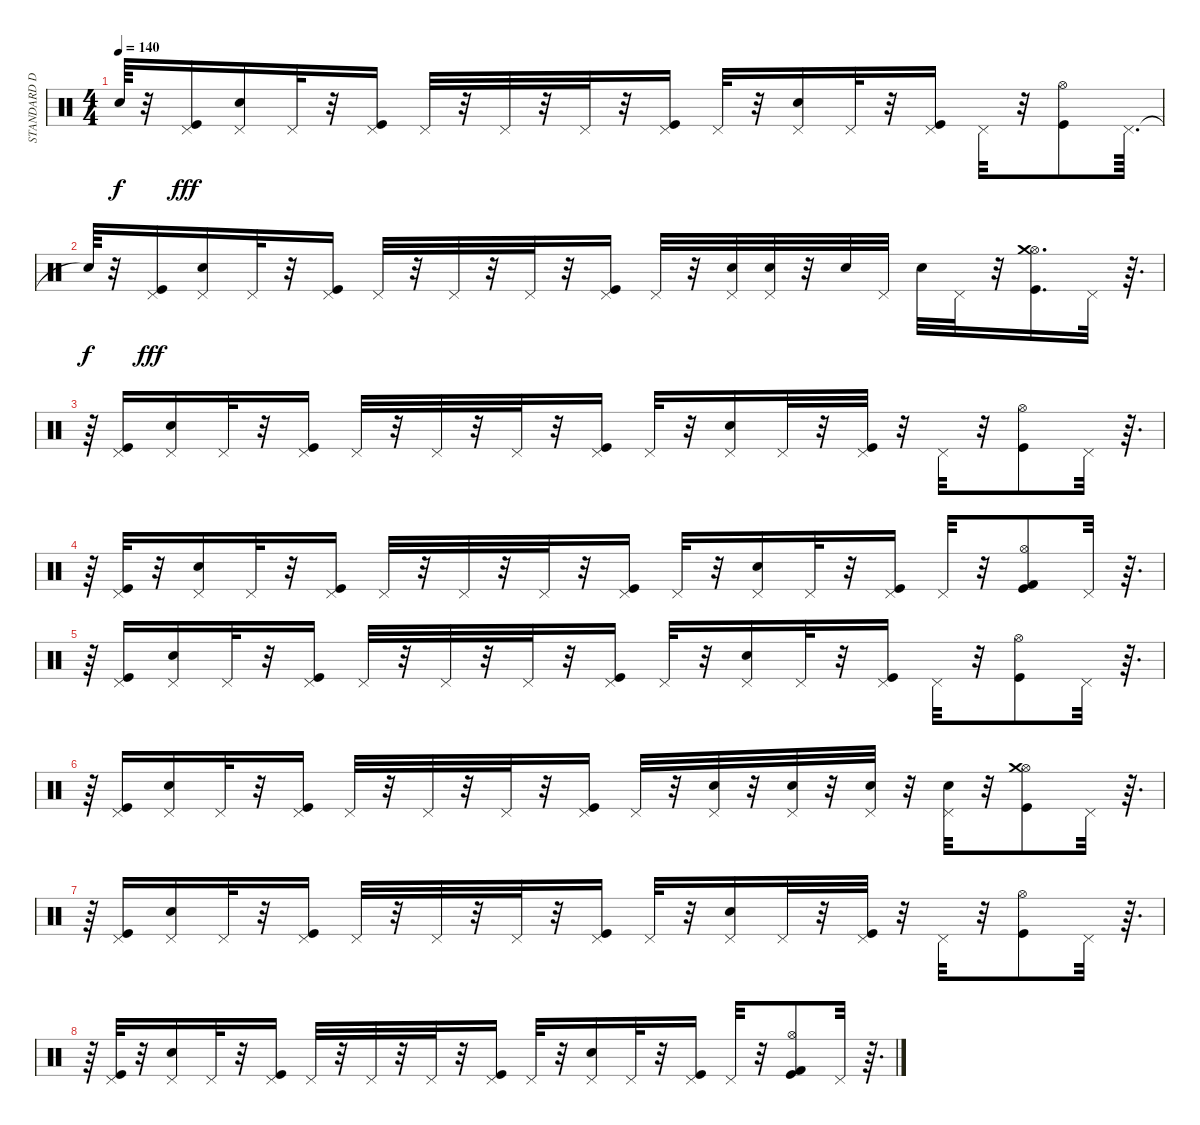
\track ("STANDARD DRUMS" "STANDARD D") {instrument percussion}
\staff {score}
\articulation defaults
\ts (4 4)
\tempo 140
\clef neutral
\ks c "Snare (hit)"{t}.64{dy f}
r.32 ("Kick (hit)" "Pedal Hi-Hat (hit)").16{dy fff} ("Snare (hit) 2" "Pedal Hi-Hat (hit)").16 "Pedal Hi-Hat (hit)".32 r.32 ("Kick (hit)" "Pedal Hi-Hat (hit)").16 "Pedal Hi-Hat (hit)".32 r.32 "Pedal Hi-Hat (hit)".32 r.32 "Pedal Hi-Hat (hit)".32 r.32 ("Kick (hit)" "Pedal Hi-Hat (hit)").16 "Pedal Hi-Hat (hit)".32 r.32 ("Snare (hit) 2" "Pedal Hi-Hat (hit)").16 "Pedal Hi-Hat (hit)".32 r.32 ("Kick (hit)" "Pedal Hi-Hat (hit)").16 "Pedal Hi-Hat (hit)".32 r.32 ("Kick (hit)" "Hi-Hat (open)").8 "Pedal Hi-Hat (hit)".64{d} |
"Snare (hit)"{t}.64{dy f} r.32 ("Kick (hit)" "Pedal Hi-Hat (hit)").16{dy fff} ("Snare (hit) 2" "Pedal Hi-Hat (hit)").16 "Pedal Hi-Hat (hit)".32 r.32 ("Kick (hit)" "Pedal Hi-Hat (hit)").16 "Pedal Hi-Hat (hit)".32 r.32 "Pedal Hi-Hat (hit)".32 r.32 "Pedal Hi-Hat (hit)".32 r.32 ("Kick (hit)" "Pedal Hi-Hat (hit)").16 "Pedal Hi-Hat (hit)".32 r.32 ("Snare (hit) 2" "Pedal Hi-Hat (hit)").32 ("Snare (hit) 2" "Pedal Hi-Hat (hit)").32 r.32 "Snare (hit) 2".32 "Pedal Hi-Hat (hit)".32 "Snare (hit) 2".32 "Pedal Hi-Hat (hit)".32 r.32 ("Kick (hit)" "Hi-Hat (open)" "Crash medium (hit)").16{d} "Pedal Hi-Hat (hit)".32 r.64{d} |
r.64 ("Kick (hit)" "Pedal Hi-Hat (hit)").16 ("Snare (hit) 2" "Pedal Hi-Hat (hit)").16 "Pedal Hi-Hat (hit)".32 r.32 ("Kick (hit)" "Pedal Hi-Hat (hit)").16 "Pedal Hi-Hat (hit)".32 r.32 "Pedal Hi-Hat (hit)".32 r.32 "Pedal Hi-Hat (hit)".32 r.32 ("Kick (hit)" "Pedal Hi-Hat (hit)").16 "Pedal Hi-Hat (hit)".32 r.32 ("Snare (hit) 2" "Pedal Hi-Hat (hit)").16 "Pedal Hi-Hat (hit)".32 r.32 ("Kick (hit)" "Pedal Hi-Hat (hit)").32 r.32 "Pedal Hi-Hat (hit)".32 r.32 ("Kick (hit)" "Hi-Hat (open)").8 "Pedal Hi-Hat (hit)".32 r.64{d} |
r.64 ("Kick (hit)" "Pedal Hi-Hat (hit)").32 r.32 ("Snare (hit) 2" "Pedal Hi-Hat (hit)").16 "Pedal Hi-Hat (hit)".32 r.32 ("Kick (hit)" "Pedal Hi-Hat (hit)").16 "Pedal Hi-Hat (hit)".32 r.32 "Pedal Hi-Hat (hit)".32 r.32 "Pedal Hi-Hat (hit)".32 r.32 ("Kick (hit)" "Pedal Hi-Hat (hit)").16 "Pedal Hi-Hat (hit)".32 r.32 ("Snare (hit) 2" "Pedal Hi-Hat (hit)").16 "Pedal Hi-Hat (hit)".32 r.32 ("Kick (hit)" "Pedal Hi-Hat (hit)").16 "Pedal Hi-Hat (hit)".32 r.32 ("Kick (hit)" "Kick (hit) 2" "Hi-Hat (open)").8 "Pedal Hi-Hat (hit)".32 r.64{d} |
r.64 ("Kick (hit)" "Pedal Hi-Hat (hit)").16 ("Snare (hit) 2" "Pedal Hi-Hat (hit)").16 "Pedal Hi-Hat (hit)".32 r.32 ("Kick (hit)" "Pedal Hi-Hat (hit)").16 "Pedal Hi-Hat (hit)".32 r.32 "Pedal Hi-Hat (hit)".32 r.32 "Pedal Hi-Hat (hit)".32 r.32 ("Kick (hit)" "Pedal Hi-Hat (hit)").16 "Pedal Hi-Hat (hit)".32 r.32 ("Snare (hit) 2" "Pedal Hi-Hat (hit)").16 "Pedal Hi-Hat (hit)".32 r.32 ("Kick (hit)" "Pedal Hi-Hat (hit)").16 "Pedal Hi-Hat (hit)".32 r.32 ("Kick (hit)" "Hi-Hat (open)").8 "Pedal Hi-Hat (hit)".32 r.64{d} |
r.64 ("Kick (hit)" "Pedal Hi-Hat (hit)").16 ("Snare (hit) 2" "Pedal Hi-Hat (hit)").16 "Pedal Hi-Hat (hit)".32 r.32 ("Kick (hit)" "Pedal Hi-Hat (hit)").16 "Pedal Hi-Hat (hit)".32 r.32 "Pedal Hi-Hat (hit)".32 r.32 "Pedal Hi-Hat (hit)".32 r.32 ("Kick (hit)" "Pedal Hi-Hat (hit)").16 "Pedal Hi-Hat (hit)".32 r.32 ("Snare (hit) 2" "Pedal Hi-Hat (hit)").32 r.32 ("Snare (hit) 2" "Pedal Hi-Hat (hit)").32 r.32 ("Snare (hit) 2" "Pedal Hi-Hat (hit)").32 r.32 ("Snare (hit) 2" "Pedal Hi-Hat (hit)").32 r.32 ("Kick (hit)" "Hi-Hat (open)" "Crash medium (hit)").8 "Pedal Hi-Hat (hit)".32 r.64{d} |
r.64 ("Kick (hit)" "Pedal Hi-Hat (hit)").16 ("Snare (hit) 2" "Pedal Hi-Hat (hit)").16 "Pedal Hi-Hat (hit)".32 r.32 ("Kick (hit)" "Pedal Hi-Hat (hit)").16 "Pedal Hi-Hat (hit)".32 r.32 "Pedal Hi-Hat (hit)".32 r.32 "Pedal Hi-Hat (hit)".32 r.32 ("Kick (hit)" "Pedal Hi-Hat (hit)").16 "Pedal Hi-Hat (hit)".32 r.32 ("Snare (hit) 2" "Pedal Hi-Hat (hit)").16 "Pedal Hi-Hat (hit)".32 r.32 ("Kick (hit)" "Pedal Hi-Hat (hit)").32 r.32 "Pedal Hi-Hat (hit)".32 r.32 ("Kick (hit)" "Hi-Hat (open)").8 "Pedal Hi-Hat (hit)".32 r.64{d} |
r.64 ("Kick (hit)" "Pedal Hi-Hat (hit)").32 r.32 ("Snare (hit) 2" "Pedal Hi-Hat (hit)").16 "Pedal Hi-Hat (hit)".32 r.32 ("Kick (hit)" "Pedal Hi-Hat (hit)").16 "Pedal Hi-Hat (hit)".32 r.32 "Pedal Hi-Hat (hit)".32 r.32 "Pedal Hi-Hat (hit)".32 r.32 ("Kick (hit)" "Pedal Hi-Hat (hit)").16 "Pedal Hi-Hat (hit)".32 r.32 ("Snare (hit) 2" "Pedal Hi-Hat (hit)").16 "Pedal Hi-Hat (hit)".32 r.32 ("Kick (hit)" "Pedal Hi-Hat (hit)").16 "Pedal Hi-Hat (hit)".32 r.32 ("Kick (hit)" "Kick (hit) 2" "Hi-Hat (open)").8 "Pedal Hi-Hat (hit)".32 r.64{d}
